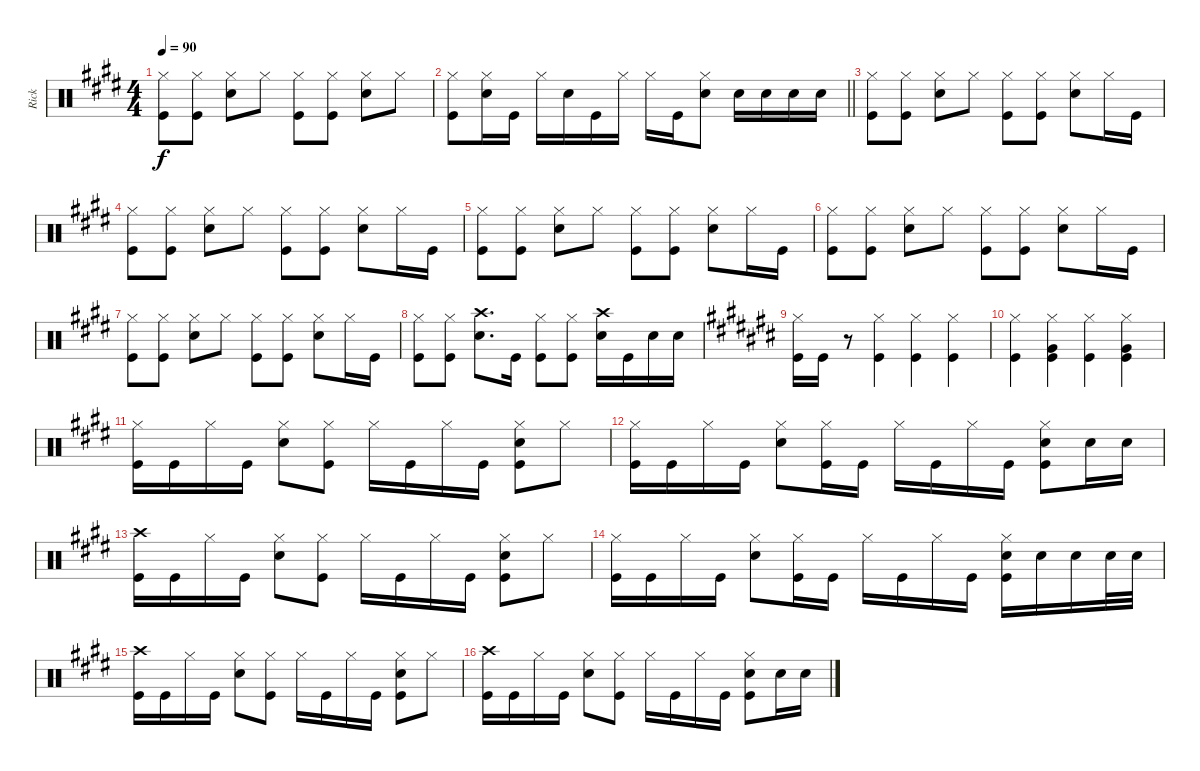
\track ("Rick" "Rick") {instrument percussion}
\staff {score}
\articulation defaults
\ts (4 4)
\tempo 90
\clef neutral
\ks e
("Hi-Hat (closed)" "Kick (hit)").8{dy f} ("Hi-Hat (closed)" "Kick (hit)").8 ("Hi-Hat (closed)" "Snare (hit) 2").8 "Hi-Hat (closed)".8 ("Hi-Hat (closed)" "Kick (hit)").8 ("Hi-Hat (closed)" "Kick (hit)").8 ("Hi-Hat (closed)" "Snare (hit) 2").8 "Hi-Hat (closed)".8 |
\barLineRight lightlight
("Hi-Hat (closed)" "Kick (hit)").8 ("Hi-Hat (closed)" "Snare (hit) 2").16 "Kick (hit)".16 "Hi-Hat (closed)".16 "Snare (hit) 2".16 "Kick (hit)".16 "Hi-Hat (closed)".16 "Hi-Hat (closed)".16 "Kick (hit)".16 ("Hi-Hat (closed)" "Snare (hit) 2").8 "Snare (hit) 2".16 "Snare (hit) 2".16 "Snare (hit) 2".16 "Snare (hit) 2".16 |
("Hi-Hat (closed)" "Kick (hit)").8 ("Hi-Hat (closed)" "Kick (hit)").8 ("Hi-Hat (closed)" "Snare (hit) 2").8 "Hi-Hat (closed)".8 ("Hi-Hat (closed)" "Kick (hit)").8 ("Hi-Hat (closed)" "Kick (hit)").8 ("Hi-Hat (closed)" "Snare (hit) 2").8 "Hi-Hat (closed)".16 "Kick (hit)".16 |
("Hi-Hat (closed)" "Kick (hit)").8 ("Hi-Hat (closed)" "Kick (hit)").8 ("Hi-Hat (closed)" "Snare (hit) 2").8 "Hi-Hat (closed)".8 ("Hi-Hat (closed)" "Kick (hit)").8 ("Hi-Hat (closed)" "Kick (hit)").8 ("Hi-Hat (closed)" "Snare (hit) 2").8 "Hi-Hat (closed)".16 "Kick (hit)".16 |
("Hi-Hat (closed)" "Kick (hit)").8 ("Hi-Hat (closed)" "Kick (hit)").8 ("Hi-Hat (closed)" "Snare (hit) 2").8 "Hi-Hat (closed)".8 ("Hi-Hat (closed)" "Kick (hit)").8 ("Hi-Hat (closed)" "Kick (hit)").8 ("Hi-Hat (closed)" "Snare (hit) 2").8 "Hi-Hat (closed)".16 "Kick (hit)".16 |
("Hi-Hat (closed)" "Kick (hit)").8 ("Hi-Hat (closed)" "Kick (hit)").8 ("Hi-Hat (closed)" "Snare (hit) 2").8 "Hi-Hat (closed)".8 ("Hi-Hat (closed)" "Kick (hit)").8 ("Hi-Hat (closed)" "Kick (hit)").8 ("Hi-Hat (closed)" "Snare (hit) 2").8 "Hi-Hat (closed)".16 "Kick (hit)".16 |
("Hi-Hat (closed)" "Kick (hit)").8 ("Hi-Hat (closed)" "Kick (hit)").8 ("Hi-Hat (closed)" "Snare (hit) 2").8 "Hi-Hat (closed)".8 ("Hi-Hat (closed)" "Kick (hit)").8 ("Hi-Hat (closed)" "Kick (hit)").8 ("Hi-Hat (closed)" "Snare (hit) 2").8 "Hi-Hat (closed)".16 "Kick (hit)".16 |
("Hi-Hat (closed)" "Kick (hit)").8 ("Hi-Hat (closed)" "Kick (hit)").8 ("Crash high (hit)" "Snare (hit) 2").8{d} "Kick (hit)".16 ("Hi-Hat (closed)" "Kick (hit)").8 ("Hi-Hat (closed)" "Kick (hit)").8 ("Crash high (hit)" "Snare (hit) 2").16 "Kick (hit)".16 "Snare (hit) 2".16 "Snare (hit) 2".16 |
\ks c#
("Hi-Hat (closed)" "Kick (hit)").16 "Kick (hit)".16 r.8 ("Hi-Hat (closed)" "Kick (hit)").4 ("Hi-Hat (closed)" "Kick (hit)").4 ("Hi-Hat (closed)" "Kick (hit)").4 |
("Hi-Hat (closed)" "Kick (hit)").4 ("Hi-Hat (closed)" "Very Low Tom (hit)" "Kick (hit)").4 ("Hi-Hat (closed)" "Kick (hit)").4 ("Hi-Hat (closed)" "Very Low Tom (hit)" "Kick (hit)").4 |
\ks e
("Hi-Hat (closed)" "Kick (hit)").16 "Kick (hit)".16 "Hi-Hat (closed)".16 "Kick (hit)".16 ("Hi-Hat (closed)" "Snare (hit) 2").8 ("Hi-Hat (closed)" "Kick (hit)").8 "Hi-Hat (closed)".16 "Kick (hit)".16 "Hi-Hat (closed)".16 "Kick (hit)".16 ("Hi-Hat (closed)" "Snare (hit) 2" "Kick (hit)").8 "Hi-Hat (closed)".8 |
("Hi-Hat (closed)" "Kick (hit)").16 "Kick (hit)".16 "Hi-Hat (closed)".16 "Kick (hit)".16 ("Hi-Hat (closed)" "Snare (hit) 2").8 ("Hi-Hat (closed)" "Kick (hit)").16 "Kick (hit)".16 "Hi-Hat (closed)".16 "Kick (hit)".16 "Hi-Hat (closed)".16 "Kick (hit)".16 ("Hi-Hat (closed)" "Snare (hit) 2" "Kick (hit)").8 "Snare (hit) 2".16 "Snare (hit) 2".16 |
("Crash high (hit)" "Kick (hit)").16 "Kick (hit)".16 "Hi-Hat (closed)".16 "Kick (hit)".16 ("Hi-Hat (closed)" "Snare (hit) 2").8 ("Hi-Hat (closed)" "Kick (hit)").8 "Hi-Hat (closed)".16 "Kick (hit)".16 "Hi-Hat (closed)".16 "Kick (hit)".16 ("Hi-Hat (closed)" "Snare (hit) 2" "Kick (hit)").8 "Hi-Hat (closed)".8 |
("Hi-Hat (closed)" "Kick (hit)").16 "Kick (hit)".16 "Hi-Hat (closed)".16 "Kick (hit)".16 ("Hi-Hat (closed)" "Snare (hit) 2").8 ("Hi-Hat (closed)" "Kick (hit)").16 "Kick (hit)".16 "Hi-Hat (closed)".16 "Kick (hit)".16 "Hi-Hat (closed)".16 "Kick (hit)".16 ("Hi-Hat (closed)" "Snare (hit) 2" "Kick (hit)").16 "Snare (hit) 2".16 "Snare (hit) 2".16 "Snare (hit) 2".32 "Snare (hit) 2".32 |
("Crash high (hit)" "Kick (hit)").16 "Kick (hit)".16 "Hi-Hat (closed)".16 "Kick (hit)".16 ("Hi-Hat (closed)" "Snare (hit) 2").8 ("Hi-Hat (closed)" "Kick (hit)").8 "Hi-Hat (closed)".16 "Kick (hit)".16 "Hi-Hat (closed)".16 "Kick (hit)".16 ("Hi-Hat (closed)" "Snare (hit) 2" "Kick (hit)").8 "Hi-Hat (closed)".8 |
("Crash high (hit)" "Kick (hit)").16 "Kick (hit)".16 "Hi-Hat (closed)".16 "Kick (hit)".16 ("Hi-Hat (closed)" "Snare (hit) 2").8 ("Hi-Hat (closed)" "Kick (hit)").8 "Hi-Hat (closed)".16 "Kick (hit)".16 "Hi-Hat (closed)".16 "Kick (hit)".16 ("Hi-Hat (closed)" "Snare (hit) 2" "Kick (hit)").8 "Snare (hit) 2".16 "Snare (hit)".16
